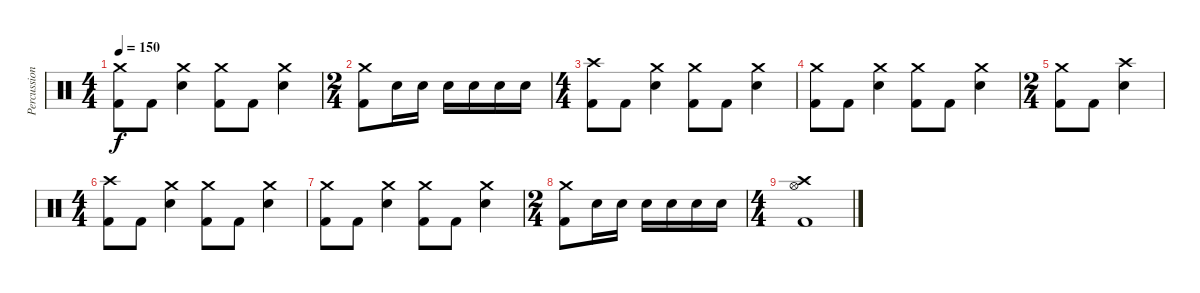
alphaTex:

\track ("Percussion" "Percussion") {instrument percussion}
\staff {score}
\articulation defaults
\ts (4 4)
\tempo 150
\clef neutral
\ks c
("Kick (hit) 2" "Crash medium (hit)").8{dy f} "Kick (hit) 2".8 ("Electric Snare (hit)" "Crash medium (hit)").4 ("Kick (hit) 2" "Crash medium (hit)").8 "Kick (hit) 2".8 ("Electric Snare (hit)" "Crash medium (hit)").4 |
\ts (2 4)
("Kick (hit) 2" "Crash medium (hit)").8 "Electric Snare (hit)".16 "Electric Snare (hit)".16 "Electric Snare (hit)".16 "Electric Snare (hit)".16 "Electric Snare (hit)".16 "Electric Snare (hit)".16 |
\ts (4 4)
("Kick (hit) 2" "Crash high (hit)").8 "Kick (hit) 2".8 ("Electric Snare (hit)" "Crash medium (hit)").4 ("Kick (hit) 2" "Crash medium (hit)").8 "Kick (hit) 2".8 ("Electric Snare (hit)" "Crash medium (hit)").4 |
("Kick (hit) 2" "Crash medium (hit)").8 "Kick (hit) 2".8 ("Electric Snare (hit)" "Crash medium (hit)").4 ("Kick (hit) 2" "Crash medium (hit)").8 "Kick (hit) 2".8 ("Electric Snare (hit)" "Crash medium (hit)").4 |
\ts (2 4)
("Kick (hit) 2" "Crash medium (hit)").8 "Kick (hit) 2".8 ("Electric Snare (hit)" "Crash high (hit)").4 |
\ts (4 4)
("Kick (hit) 2" "Crash high (hit)").8 "Kick (hit) 2".8 ("Electric Snare (hit)" "Crash medium (hit)").4 ("Kick (hit) 2" "Crash medium (hit)").8 "Kick (hit) 2".8 ("Electric Snare (hit)" "Crash medium (hit)").4 |
("Kick (hit) 2" "Crash medium (hit)").8 "Kick (hit) 2".8 ("Electric Snare (hit)" "Crash medium (hit)").4 ("Kick (hit) 2" "Crash medium (hit)").8 "Kick (hit) 2".8 ("Electric Snare (hit)" "Crash medium (hit)").4 |
\ts (2 4)
("Kick (hit) 2" "Crash medium (hit)").8 "Electric Snare (hit)".16 "Electric Snare (hit)".16 "Electric Snare (hit)".16 "Electric Snare (hit)".16 "Electric Snare (hit)".16 "Electric Snare (hit)".16 |
\ts (4 4)
("Kick (hit) 2" "Hi-Hat (open)" "Crash high (hit)").1
